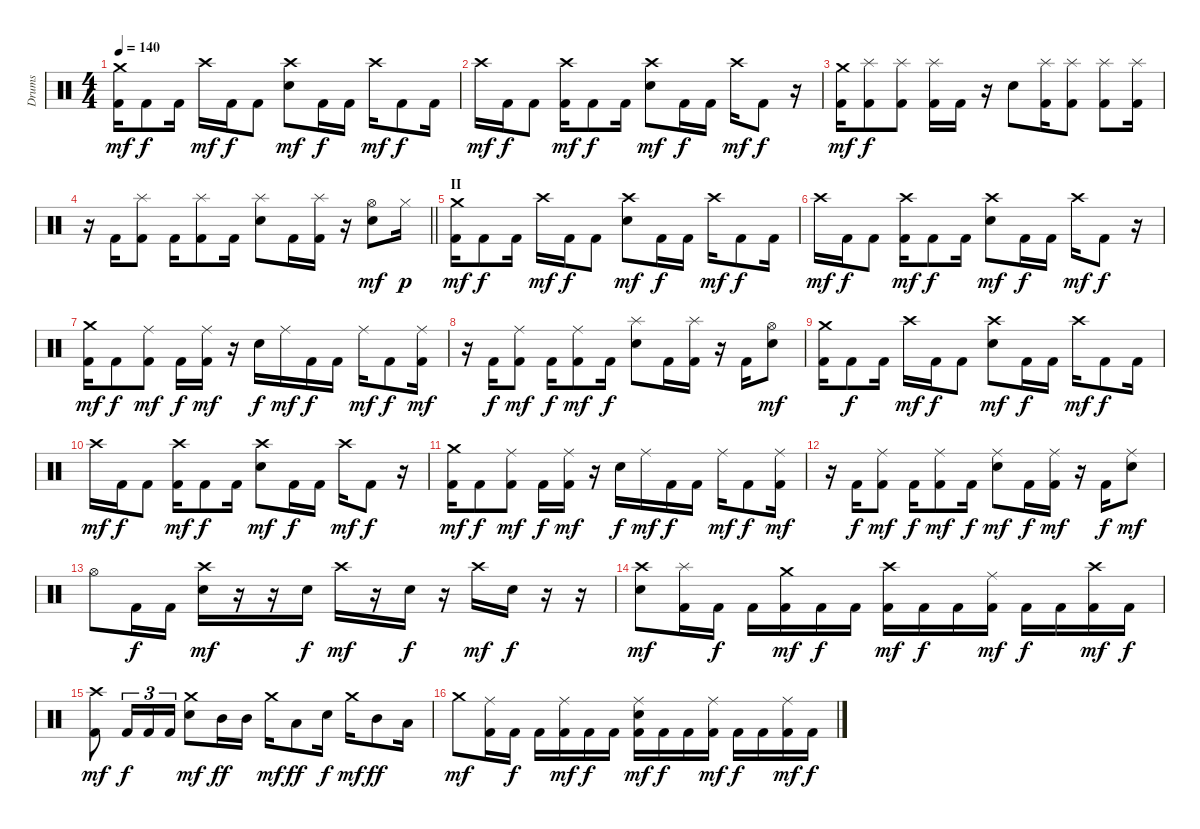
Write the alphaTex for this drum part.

\track ("Drums" "Drums") {instrument percussion}
\staff {score}
\articulation defaults
\ts (4 4)
\tempo 140
\clef neutral
\ks c
("Crash medium (hit)" "Kick (hit) 2").16{dy mf} "Kick (hit) 2".8{dy f} "Kick (hit) 2".16 "Crash high (hit)".16{dy mf} "Kick (hit) 2".16{dy f} "Kick (hit) 2".8 ("Crash high (hit)" "Electric Snare (hit)").8{dy mf} "Kick (hit) 2".16{dy f} "Kick (hit) 2".16 "Crash high (hit)".16{dy mf} "Kick (hit) 2".8{dy f} "Kick (hit) 2".16 |
"Crash high (hit)".16{dy mf} "Kick (hit) 2".16{dy f} "Kick (hit) 2".8 ("Crash high (hit)" "Kick (hit) 2").16{dy mf} "Kick (hit) 2".8{dy f} "Kick (hit) 2".16 ("Crash high (hit)" "Electric Snare (hit)").8{dy mf} "Kick (hit) 2".16{dy f} "Kick (hit) 2".16 "Crash high (hit)".16{dy mf} "Kick (hit) 2".8{dy f} r.16 |
("Crash medium (hit)" "Kick (hit) 2").16{dy mf} ("Splash (hit)" "Kick (hit) 2").8{dy f} ("Splash (hit)" "Kick (hit) 2").8 ("Splash (hit)" "Kick (hit) 2").16 "Kick (hit) 2".16 r.16 "Electric Snare (hit)".8 ("Splash (hit)" "Kick (hit) 2").16 ("Splash (hit)" "Kick (hit) 2").8 ("Splash (hit)" "Kick (hit) 2").8 ("Splash (hit)" "Kick (hit) 2").16 |
\barLineRight lightlight
r.16 "Kick (hit) 2".16 ("Splash (hit)" "Kick (hit) 2").8 "Kick (hit) 2".16 ("Splash (hit)" "Kick (hit) 2").8 "Kick (hit) 2".16 ("Splash (hit)" "Electric Snare (hit)").8 "Kick (hit) 2".16 ("Splash (hit)" "Kick (hit) 2").16 r.16 ("Hi-Hat (open)" "Electric Snare (hit)").8{dy mf} "Hi-Hat (closed)".16{dy p} |
\section ("" "II")
("Crash medium (hit)" "Kick (hit) 2").16{dy mf} "Kick (hit) 2".8{dy f} "Kick (hit) 2".16 "Crash high (hit)".16{dy mf} "Kick (hit) 2".16{dy f} "Kick (hit) 2".8 ("Crash high (hit)" "Electric Snare (hit)").8{dy mf} "Kick (hit) 2".16{dy f} "Kick (hit) 2".16 "Crash high (hit)".16{dy mf} "Kick (hit) 2".8{dy f} "Kick (hit) 2".16 |
"Crash high (hit)".16{dy mf} "Kick (hit) 2".16{dy f} "Kick (hit) 2".8 ("Crash high (hit)" "Kick (hit) 2").16{dy mf} "Kick (hit) 2".8{dy f} "Kick (hit) 2".16 ("Crash high (hit)" "Electric Snare (hit)").8{dy mf} "Kick (hit) 2".16{dy f} "Kick (hit) 2".16 "Crash high (hit)".16{dy mf} "Kick (hit) 2".8{dy f} r.16 |
("Crash medium (hit)" "Kick (hit) 2").16{dy mf} "Kick (hit) 2".8{dy f} ("Ride (middle)" "Kick (hit) 2").8{dy mf} "Kick (hit) 2".16{dy f} ("Ride (middle)" "Kick (hit) 2").16{dy mf} r.16 "Electric Snare (hit)".16{dy f} "Ride (middle)".16{dy mf} "Kick (hit) 2".16{dy f} "Kick (hit) 2".16 "Ride (middle)".16{dy mf} "Kick (hit) 2".8{dy f} ("Ride (middle)" "Kick (hit) 2").16{dy mf} |
r.16 "Kick (hit) 2".16{dy f} ("Ride (middle)" "Kick (hit) 2").8{dy mf} "Kick (hit) 2".16{dy f} ("Ride (middle)" "Kick (hit) 2").8{dy mf} "Kick (hit) 2".16{dy f} ("Splash (hit)" "Electric Snare (hit)").8 "Kick (hit) 2".16 ("Splash (hit)" "Kick (hit) 2").16 r.16 "Kick (hit) 2".16 ("Hi-Hat (open)" "Electric Snare (hit)").8{dy mf} |
("Crash medium (hit)" "Kick (hit) 2").16 "Kick (hit) 2".8{dy f} "Kick (hit) 2".16 "Crash high (hit)".16{dy mf} "Kick (hit) 2".16{dy f} "Kick (hit) 2".8 ("Crash high (hit)" "Electric Snare (hit)").8{dy mf} "Kick (hit) 2".16{dy f} "Kick (hit) 2".16 "Crash high (hit)".16{dy mf} "Kick (hit) 2".8{dy f} "Kick (hit) 2".16 |
"Crash high (hit)".16{dy mf} "Kick (hit) 2".16{dy f} "Kick (hit) 2".8 ("Crash high (hit)" "Kick (hit) 2").16{dy mf} "Kick (hit) 2".8{dy f} "Kick (hit) 2".16 ("Crash high (hit)" "Electric Snare (hit)").8{dy mf} "Kick (hit) 2".16{dy f} "Kick (hit) 2".16 "Crash high (hit)".16{dy mf} "Kick (hit) 2".8{dy f} r.16 |
("Crash medium (hit)" "Kick (hit) 2").16{dy mf} "Kick (hit) 2".8{dy f} ("Ride (middle)" "Kick (hit) 2").8{dy mf} "Kick (hit) 2".16{dy f} ("Ride (middle)" "Kick (hit) 2").16{dy mf} r.16 "Electric Snare (hit)".16{dy f} "Ride (middle)".16{dy mf} "Kick (hit) 2".16{dy f} "Kick (hit) 2".16 "Ride (middle)".16{dy mf} "Kick (hit) 2".8{dy f} ("Ride (middle)" "Kick (hit) 2").16{dy mf} |
r.16 "Kick (hit) 2".16{dy f} ("Ride (middle)" "Kick (hit) 2").8{dy mf} "Kick (hit) 2".16{dy f} ("Ride (middle)" "Kick (hit) 2").8{dy mf} "Kick (hit) 2".16{dy f} ("Ride (middle)" "Electric Snare (hit)").8{dy mf} "Kick (hit) 2".16{dy f} ("Ride (middle)" "Kick (hit) 2").16{dy mf} r.16 "Kick (hit) 2".16{dy f} ("Ride (middle)" "Electric Snare (hit)").8{dy mf} |
"Hi-Hat (open)".8 "Kick (hit) 2".16{dy f} "Kick (hit) 2".16 ("Crash high (hit)" "Electric Snare (hit)").16{dy mf} r.16 r.16 "Electric Snare (hit)".16{dy f} "Crash high (hit)".16{dy mf} r.16 "Electric Snare (hit)".16{dy f} r.16 "Crash high (hit)".16{dy mf} "Electric Snare (hit)".16{dy f} r.16 r.16 |
("Crash high (hit)" "Electric Snare (hit)").8{dy mf} ("Splash (hit)" "Kick (hit) 2").16 "Kick (hit) 2".16{dy f} "Kick (hit) 2".16 ("Crash medium (hit)" "Kick (hit) 2").16{dy mf} "Kick (hit) 2".16{dy f} "Kick (hit) 2".16 ("Crash high (hit)" "Kick (hit) 2").16{dy mf} "Kick (hit) 2".16{dy f} "Kick (hit) 2".16 ("Ride (middle)" "Kick (hit) 2").16{dy mf} "Kick (hit) 2".16{dy f} "Kick (hit) 2".16 ("Crash high (hit)" "Kick (hit) 2").16{dy mf} "Kick (hit) 2".16{dy f} |
("Crash high (hit)" "Kick (hit) 2").8{dy mf} "Kick (hit) 2".16{tu (3 2) dy f} "Kick (hit) 2".16{tu (3 2)} "Kick (hit) 2".16{tu (3 2)} ("Crash medium (hit)" "Electric Snare (hit)").8{dy mf} "Mid Tom (hit)".16{dy ff} "Mid Tom (hit)".16 "Crash medium (hit)".16{dy mf} "Low Tom (hit)".8{dy ff} "Electric Snare (hit)".16{dy f} "Crash medium (hit)".16{dy mf} "Mid Tom (hit)".8{dy ff} "Low Tom (hit)".16 |
"Crash medium (hit)".8{dy mf} ("Ride (middle)" "Kick (hit) 2").16 "Kick (hit) 2".16{dy f} "Kick (hit) 2".16 ("Ride (middle)" "Kick (hit) 2").16{dy mf} "Kick (hit) 2".16{dy f} "Kick (hit) 2".16 ("Ride (middle)" "Electric Snare (hit)" "Kick (hit) 2").16{dy mf} "Kick (hit) 2".16{dy f} "Kick (hit) 2".16 ("Ride (middle)" "Kick (hit) 2").16{dy mf} "Kick (hit) 2".16{dy f} "Kick (hit) 2".16 ("Ride (middle)" "Kick (hit) 2").16{dy mf} "Kick (hit) 2".16{dy f}
